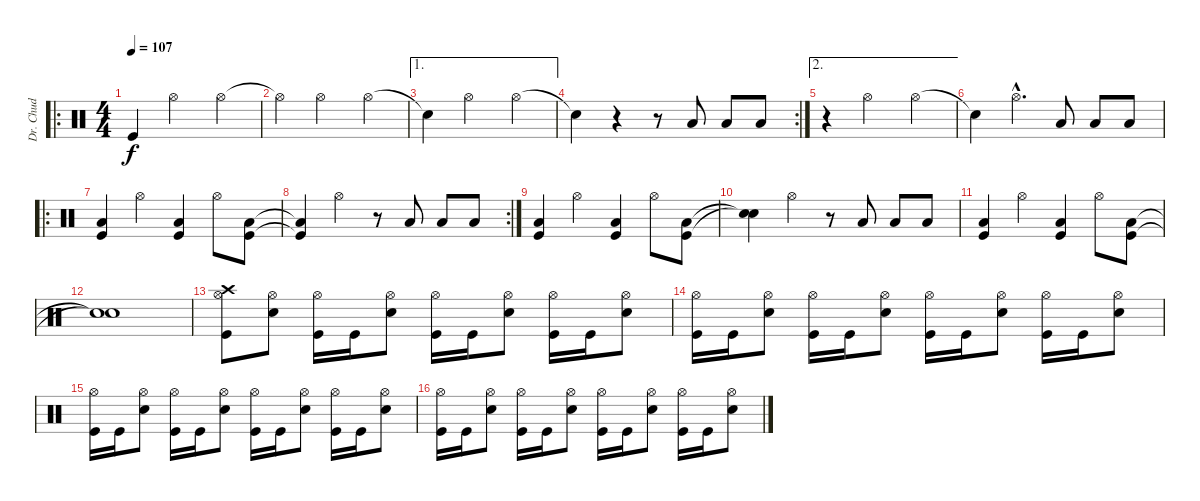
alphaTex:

\track ("Dr. Chud" "Dr. Chud") {instrument percussion}
\staff {score}
\articulation defaults
\ro
\ts (4 4)
\tempo 107
\clef neutral
\ks c "Kick (hit)".4{dy f} "Hi-Hat (open)".2 "Hi-Hat (open)".4
|
"Hi-Hat (open)"{t}.4 "Hi-Hat (open)".2 "Hi-Hat (open)".4 |
\ae 1 "Snare (hit)"{t}.4 "Hi-Hat (open)".2 "Hi-Hat (open)".4
|
\rc 2 "Snare (hit)"{t}.4
r.4 r.8 "Low Floor Tom (hit)".8 "Low Floor Tom (hit)".8 "Low Floor Tom (hit)".8 |
\ae 2
r.4 "Hi-Hat (open)".2 "Hi-Hat (open)".4 |
"Snare (hit)"{t}.4 "Hi-Hat (open)"{hac}.4{d} "Low Floor Tom (hit)".8 "Low Floor Tom (hit)".8 "Low Floor Tom (hit)".8 |
\ro
("Low Floor Tom (hit)" "Kick (hit)").4 "Hi-Hat (open)".4 ("Low Floor Tom (hit)" "Kick (hit)").4 "Hi-Hat (open)".8 ("Low Floor Tom (hit)" "Kick (hit)").8 |
\rc 2
("Low Tom (hit)"{t} "Kick (hit)"{t}).4 "Hi-Hat (open)".4 r.8 "Low Floor Tom (hit)".8 "Low Floor Tom (hit)".8 "Low Floor Tom (hit)".8 |
("Low Floor Tom (hit)" "Kick (hit)").4 "Hi-Hat (open)".4 ("Low Floor Tom (hit)" "Kick (hit)").4 "Hi-Hat (open)".8 ("Low Floor Tom (hit)" "Kick (hit)").8 |
("Snare (hit)"{t} "Snare (hit)"{t}).4 "Hi-Hat (open)".4 r.8 "Low Floor Tom (hit)".8 "Low Floor Tom (hit)".8 "Low Floor Tom (hit)".8 |
("Low Floor Tom (hit)" "Kick (hit)").4 "Hi-Hat (open)".4 ("Low Floor Tom (hit)" "Kick (hit)").4 "Hi-Hat (open)".8 ("Low Floor Tom (hit)" "Kick (hit)").8 |
("Snare (hit)"{t} "Snare (hit)"{t}).1 |
("Crash high (hit)" "Hi-Hat (open)" "Kick (hit)").8 ("Hi-Hat (open)" "Snare (hit) 2").8 ("Hi-Hat (open)" "Kick (hit)").16 "Kick (hit)".16 ("Hi-Hat (open)" "Snare (hit) 2").8 ("Hi-Hat (open)" "Kick (hit)").16 "Kick (hit)".16 ("Hi-Hat (open)" "Snare (hit) 2").8 ("Hi-Hat (open)" "Kick (hit)").16 "Kick (hit)".16 ("Hi-Hat (open)" "Snare (hit) 2").8 |
("Hi-Hat (open)" "Kick (hit)").16 "Kick (hit)".16 ("Hi-Hat (open)" "Snare (hit) 2").8 ("Hi-Hat (open)" "Kick (hit)").16 "Kick (hit)".16 ("Hi-Hat (open)" "Snare (hit) 2").8 ("Hi-Hat (open)" "Kick (hit)").16 "Kick (hit)".16 ("Hi-Hat (open)" "Snare (hit) 2").8 ("Hi-Hat (open)" "Kick (hit)").16 "Kick (hit)".16 ("Hi-Hat (open)" "Snare (hit) 2").8 |
("Hi-Hat (open)" "Kick (hit)").16 "Kick (hit)".16 ("Hi-Hat (open)" "Snare (hit) 2").8 ("Hi-Hat (open)" "Kick (hit)").16 "Kick (hit)".16 ("Hi-Hat (open)" "Snare (hit) 2").8 ("Hi-Hat (open)" "Kick (hit)").16 "Kick (hit)".16 ("Hi-Hat (open)" "Snare (hit) 2").8 ("Hi-Hat (open)" "Kick (hit)").16 "Kick (hit)".16 ("Hi-Hat (open)" "Snare (hit) 2").8 |
("Hi-Hat (open)" "Kick (hit)").16 "Kick (hit)".16 ("Hi-Hat (open)" "Snare (hit) 2").8 ("Hi-Hat (open)" "Kick (hit)").16 "Kick (hit)".16 ("Hi-Hat (open)" "Snare (hit) 2").8 ("Hi-Hat (open)" "Kick (hit)").16 "Kick (hit)".16 ("Hi-Hat (open)" "Snare (hit) 2").8 ("Hi-Hat (open)" "Kick (hit)").16 "Kick (hit)".16 ("Hi-Hat (open)" "Snare (hit) 2").8
